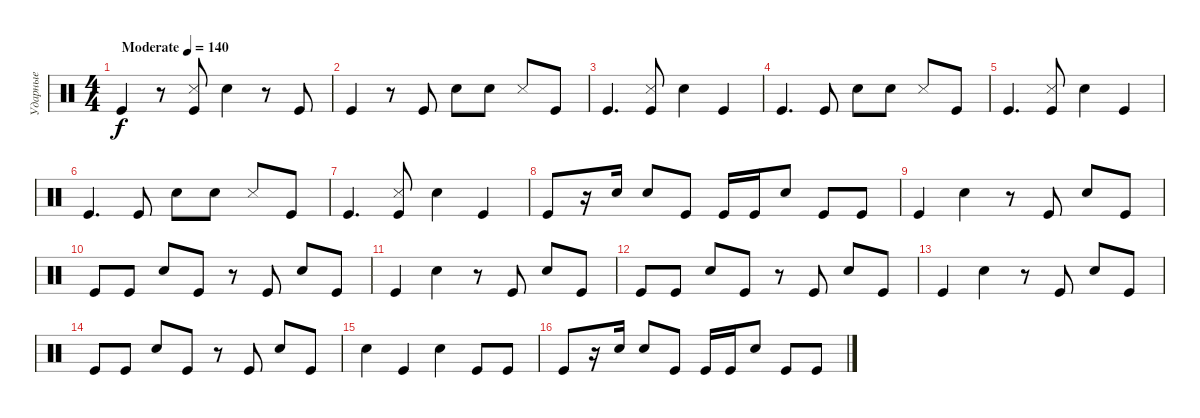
\track ("Ударные" "Ударные") {instrument percussion}
\staff {score}
\articulation defaults
\ts (4 4)
\tempo (140 "Moderate")
\clef neutral
\ks c "Kick (hit)".4{dy f}
r.8 ("Kick (hit)" "Snare (side stick) 3").8 "Snare (hit) 2".4 r.8 "Kick (hit)".8 |
"Kick (hit)".4 r.8 "Kick (hit)".8 "Snare (hit) 2".8 "Snare (hit) 2".8 "Snare (side stick) 3".8 "Kick (hit)".8 |
"Kick (hit)".4{d} ("Kick (hit)" "Snare (side stick) 3").8 "Snare (hit) 2".4 "Kick (hit)".4 |
"Kick (hit)".4{d} "Kick (hit)".8 "Snare (hit) 2".8 "Snare (hit) 2".8 "Snare (side stick) 3".8 "Kick (hit)".8 |
"Kick (hit)".4{d} ("Kick (hit)" "Snare (side stick) 3").8 "Snare (hit) 2".4 "Kick (hit)".4 |
"Kick (hit)".4{d} "Kick (hit)".8 "Snare (hit) 2".8 "Snare (hit) 2".8 "Snare (side stick) 3".8 "Kick (hit)".8 |
"Kick (hit)".4{d} ("Kick (hit)" "Snare (side stick) 3").8 "Snare (hit) 2".4 "Kick (hit)".4 |
"Kick (hit)".8 r.16 "Snare (hit) 2".16 "Snare (hit) 2".8 "Kick (hit)".8 "Kick (hit)".16 "Kick (hit)".16 "Snare (hit) 2".8 "Kick (hit)".8 "Kick (hit)".8 |
"Kick (hit)".4 "Snare (hit) 2".4 r.8 "Kick (hit)".8 "Snare (hit) 2".8 "Kick (hit)".8 |
"Kick (hit)".8 "Kick (hit)".8 "Snare (hit) 2".8 "Kick (hit)".8 r.8 "Kick (hit)".8 "Snare (hit) 2".8 "Kick (hit)".8 |
"Kick (hit)".4 "Snare (hit) 2".4 r.8 "Kick (hit)".8 "Snare (hit) 2".8 "Kick (hit)".8 |
"Kick (hit)".8 "Kick (hit)".8 "Snare (hit) 2".8 "Kick (hit)".8 r.8 "Kick (hit)".8 "Snare (hit) 2".8 "Kick (hit)".8 |
"Kick (hit)".4 "Snare (hit) 2".4 r.8 "Kick (hit)".8 "Snare (hit) 2".8 "Kick (hit)".8 |
"Kick (hit)".8 "Kick (hit)".8 "Snare (hit) 2".8 "Kick (hit)".8 r.8 "Kick (hit)".8 "Snare (hit) 2".8 "Kick (hit)".8 |
"Snare (hit) 2".4 "Kick (hit)".4 "Snare (hit) 2".4 "Kick (hit)".8 "Kick (hit)".8 |
"Kick (hit)".8 r.16 "Snare (hit) 2".16 "Snare (hit) 2".8 "Kick (hit)".8 "Kick (hit)".16 "Kick (hit)".16 "Snare (hit) 2".8 "Kick (hit)".8 "Kick (hit)".8
